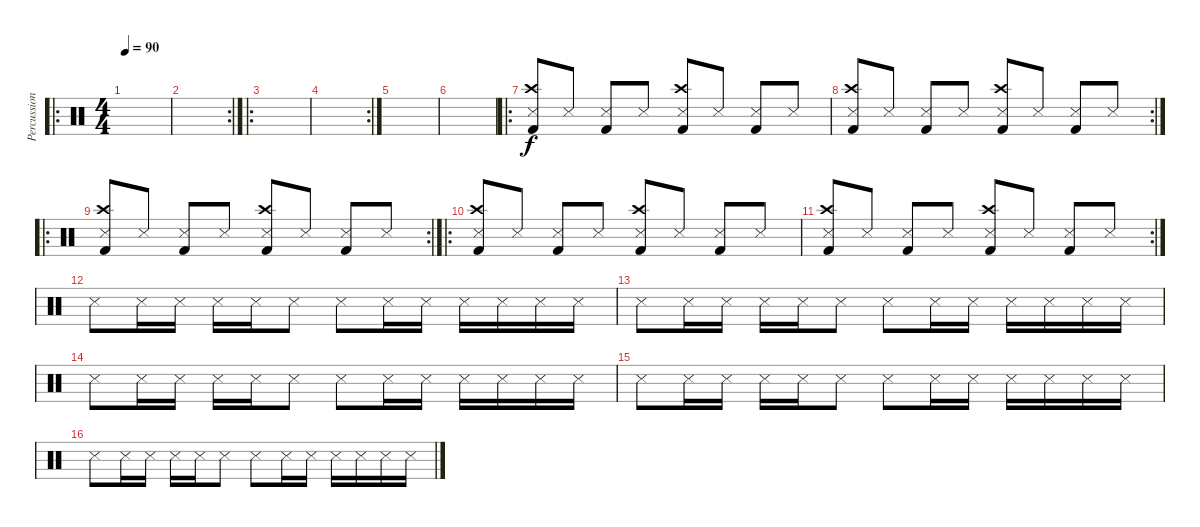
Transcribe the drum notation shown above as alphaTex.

\track ("Percussions" "Percussion") {instrument percussion}
\staff {score}
\articulation defaults
\ro
\ts (4 4)
\tempo 90
\clef neutral
\ks c
|
\rc 2
|
\ro
|
\rc 2
|
|
|
\ro
("Snare (side stick) 3" "Crash high (hit)" "Kick (hit) 2").8 "Metronome (hit)".8 ("Snare (side stick) 3" "Kick (hit) 2").8 "Metronome (hit)".8 ("Snare (side stick) 3" "Crash high (hit)" "Kick (hit) 2").8 "Metronome (hit)".8 ("Snare (side stick) 3" "Kick (hit) 2").8 "Metronome (hit)".8 |
\rc 2
("Snare (side stick) 3" "Crash high (hit)" "Kick (hit) 2").8 "Metronome (hit)".8 ("Snare (side stick) 3" "Kick (hit) 2").8 "Metronome (hit)".8 ("Snare (side stick) 3" "Crash high (hit)" "Kick (hit) 2").8 "Metronome (hit)".8 ("Snare (side stick) 3" "Kick (hit) 2").8 "Metronome (hit)".8 |
\ro
\rc 2
("Snare (side stick) 3" "Crash high (hit)" "Kick (hit) 2").8 "Metronome (hit)".8 ("Snare (side stick) 3" "Kick (hit) 2").8 "Metronome (hit)".8 ("Snare (side stick) 3" "Crash high (hit)" "Kick (hit) 2").8 "Metronome (hit)".8 ("Snare (side stick) 3" "Kick (hit) 2").8 "Metronome (hit)".8 |
\ro
("Snare (side stick) 3" "Crash high (hit)" "Kick (hit) 2").8 "Metronome (hit)".8 ("Snare (side stick) 3" "Kick (hit) 2").8 "Metronome (hit)".8 ("Snare (side stick) 3" "Crash high (hit)" "Kick (hit) 2").8 "Metronome (hit)".8 ("Snare (side stick) 3" "Kick (hit) 2").8 "Metronome (hit)".8 |
\rc 2
("Snare (side stick) 3" "Crash high (hit)" "Kick (hit) 2").8 "Metronome (hit)".8 ("Snare (side stick) 3" "Kick (hit) 2").8 "Metronome (hit)".8 ("Snare (side stick) 3" "Crash high (hit)" "Kick (hit) 2").8 "Metronome (hit)".8 ("Snare (side stick) 3" "Kick (hit) 2").8 "Metronome (hit)".8 |
"Snare (side stick) 3".8 "Snare (side stick) 3".16 "Snare (side stick) 3".16 "Snare (side stick) 3".16 "Snare (side stick) 3".16 "Metronome (hit)".8 "Metronome (hit)".8 "Metronome (hit)".16 "Metronome (hit)".16 "Metronome (hit)".16 "Metronome (hit)".16 "Metronome (hit)".16 "Snare (side stick) 3".16 |
"Snare (side stick) 3".8 "Snare (side stick) 3".16 "Snare (side stick) 3".16 "Snare (side stick) 3".16 "Snare (side stick) 3".16 "Metronome (hit)".8 "Metronome (hit)".8 "Metronome (hit)".16 "Metronome (hit)".16 "Metronome (hit)".16 "Metronome (hit)".16 "Metronome (hit)".16 "Snare (side stick) 3".16 |
"Snare (side stick) 3".8 "Snare (side stick) 3".16 "Snare (side stick) 3".16 "Snare (side stick) 3".16 "Snare (side stick) 3".16 "Metronome (hit)".8 "Metronome (hit)".8 "Metronome (hit)".16 "Metronome (hit)".16 "Metronome (hit)".16 "Metronome (hit)".16 "Metronome (hit)".16 "Snare (side stick) 3".16 |
"Snare (side stick) 3".8 "Snare (side stick) 3".16 "Snare (side stick) 3".16 "Snare (side stick) 3".16 "Snare (side stick) 3".16 "Metronome (hit)".8 "Metronome (hit)".8 "Metronome (hit)".16 "Metronome (hit)".16 "Metronome (hit)".16 "Metronome (hit)".16 "Metronome (hit)".16 "Snare (side stick) 3".16 |
"Snare (side stick) 3".8 "Snare (side stick) 3".16 "Snare (side stick) 3".16 "Snare (side stick) 3".16 "Snare (side stick) 3".16 "Metronome (hit)".8 "Metronome (hit)".8 "Metronome (hit)".16 "Metronome (hit)".16 "Metronome (hit)".16 "Metronome (hit)".16 "Metronome (hit)".16 "Snare (side stick) 3".16
